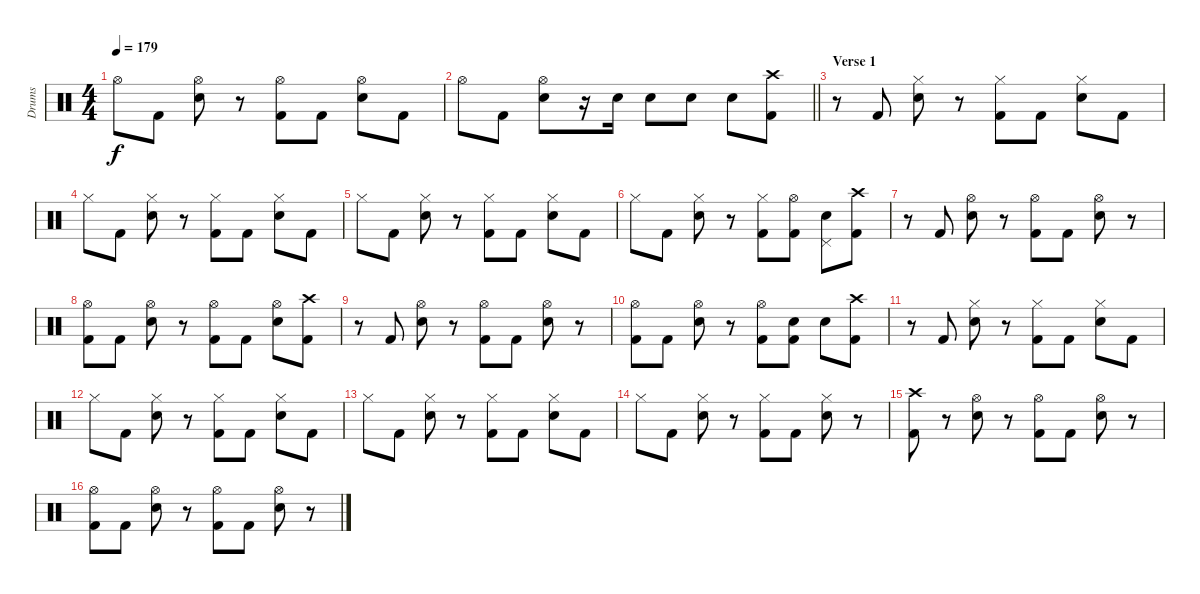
\track ("Drums" "Drums") {instrument percussion}
\staff {score}
\articulation defaults
\ts (4 4)
\tempo 179
\clef neutral
\ks c "Hi-Hat (open)".8{dy f} "Kick (hit) 2".8
("Hi-Hat (open)" "Snare (hit) 2").8 r.8 ("Hi-Hat (open)" "Kick (hit) 2").8 "Kick (hit) 2".8 ("Hi-Hat (open)" "Snare (hit) 2").8 "Kick (hit) 2".8 |
\barLineRight lightlight "Hi-Hat (open)".8 "Kick (hit) 2".8
("Hi-Hat (open)" "Snare (hit) 2").8 r.16 "Snare (hit) 2".16 "Snare (hit) 2".8 "Snare (hit) 2".8 "Snare (hit) 2".8 ("Crash high (hit)" "Kick (hit) 2").8 |
\section ("" "Verse 1")
r.8 "Kick (hit) 2".8 ("Hi-Hat (closed)" "Snare (hit) 2").8 r.8 ("Hi-Hat (closed)" "Kick (hit) 2").8 "Kick (hit) 2".8 ("Hi-Hat (closed)" "Snare (hit) 2").8 "Kick (hit) 2".8 |
"Hi-Hat (closed)".8 "Kick (hit) 2".8 ("Hi-Hat (closed)" "Snare (hit) 2").8 r.8 ("Hi-Hat (closed)" "Kick (hit) 2").8 "Kick (hit) 2".8 ("Hi-Hat (closed)" "Snare (hit) 2").8 "Kick (hit) 2".8 |
"Hi-Hat (closed)".8 "Kick (hit) 2".8 ("Hi-Hat (closed)" "Snare (hit) 2").8 r.8 ("Hi-Hat (closed)" "Kick (hit) 2").8 "Kick (hit) 2".8 ("Hi-Hat (closed)" "Snare (hit) 2").8 "Kick (hit) 2".8 |
"Hi-Hat (closed)".8 "Kick (hit) 2".8 ("Hi-Hat (closed)" "Snare (hit) 2").8 r.8 ("Hi-Hat (closed)" "Kick (hit) 2").8 ("Hi-Hat (open)" "Kick (hit) 2").8 ("Pedal Hi-Hat (hit)" "Snare (hit) 2").8 ("Crash high (hit)" "Kick (hit) 2").8 |
r.8 "Kick (hit) 2".8 ("Hi-Hat (open)" "Snare (hit) 2").8 r.8 ("Hi-Hat (open)" "Kick (hit) 2").8 "Kick (hit) 2".8 ("Hi-Hat (open)" "Snare (hit) 2").8 r.8 |
("Hi-Hat (open)" "Kick (hit) 2").8 "Kick (hit) 2".8 ("Hi-Hat (open)" "Snare (hit) 2").8 r.8 ("Hi-Hat (open)" "Kick (hit) 2").8 "Kick (hit) 2".8 ("Hi-Hat (open)" "Snare (hit) 2").8 ("Crash high (hit)" "Kick (hit) 2").8 |
r.8 "Kick (hit) 2".8 ("Hi-Hat (open)" "Snare (hit) 2").8 r.8 ("Hi-Hat (open)" "Kick (hit) 2").8 "Kick (hit) 2".8 ("Hi-Hat (open)" "Snare (hit) 2").8 r.8 |
("Hi-Hat (open)" "Kick (hit) 2").8 "Kick (hit) 2".8 ("Hi-Hat (open)" "Snare (hit) 2").8 r.8 ("Hi-Hat (open)" "Kick (hit) 2").8 ("Snare (hit) 2" "Kick (hit) 2").8 "Snare (hit) 2".8 ("Crash high (hit)" "Kick (hit) 2").8 |
r.8 "Kick (hit) 2".8 ("Hi-Hat (closed)" "Snare (hit) 2").8 r.8 ("Hi-Hat (closed)" "Kick (hit) 2").8 "Kick (hit) 2".8 ("Hi-Hat (closed)" "Snare (hit) 2").8 "Kick (hit) 2".8 |
"Hi-Hat (closed)".8 "Kick (hit) 2".8 ("Hi-Hat (closed)" "Snare (hit) 2").8 r.8 ("Hi-Hat (closed)" "Kick (hit) 2").8 "Kick (hit) 2".8 ("Hi-Hat (closed)" "Snare (hit) 2").8 "Kick (hit) 2".8 |
"Hi-Hat (closed)".8 "Kick (hit) 2".8 ("Hi-Hat (closed)" "Snare (hit) 2").8 r.8 ("Hi-Hat (closed)" "Kick (hit) 2").8 "Kick (hit) 2".8 ("Hi-Hat (closed)" "Snare (hit) 2").8 "Kick (hit) 2".8 |
"Hi-Hat (closed)".8 "Kick (hit) 2".8 ("Hi-Hat (closed)" "Snare (hit) 2").8 r.8 ("Hi-Hat (closed)" "Kick (hit) 2").8 "Kick (hit) 2".8 ("Hi-Hat (closed)" "Snare (hit) 2").8 r.8 |
("Crash high (hit)" "Kick (hit) 2").8 r.8 ("Hi-Hat (open)" "Snare (hit) 2").8 r.8 ("Hi-Hat (open)" "Kick (hit) 2").8 "Kick (hit) 2".8 ("Hi-Hat (open)" "Snare (hit) 2").8 r.8 |
("Hi-Hat (open)" "Kick (hit) 2").8 "Kick (hit) 2".8 ("Hi-Hat (open)" "Snare (hit) 2").8 r.8 ("Hi-Hat (open)" "Kick (hit) 2").8 "Kick (hit) 2".8 ("Hi-Hat (open)" "Snare (hit) 2").8 r.8
